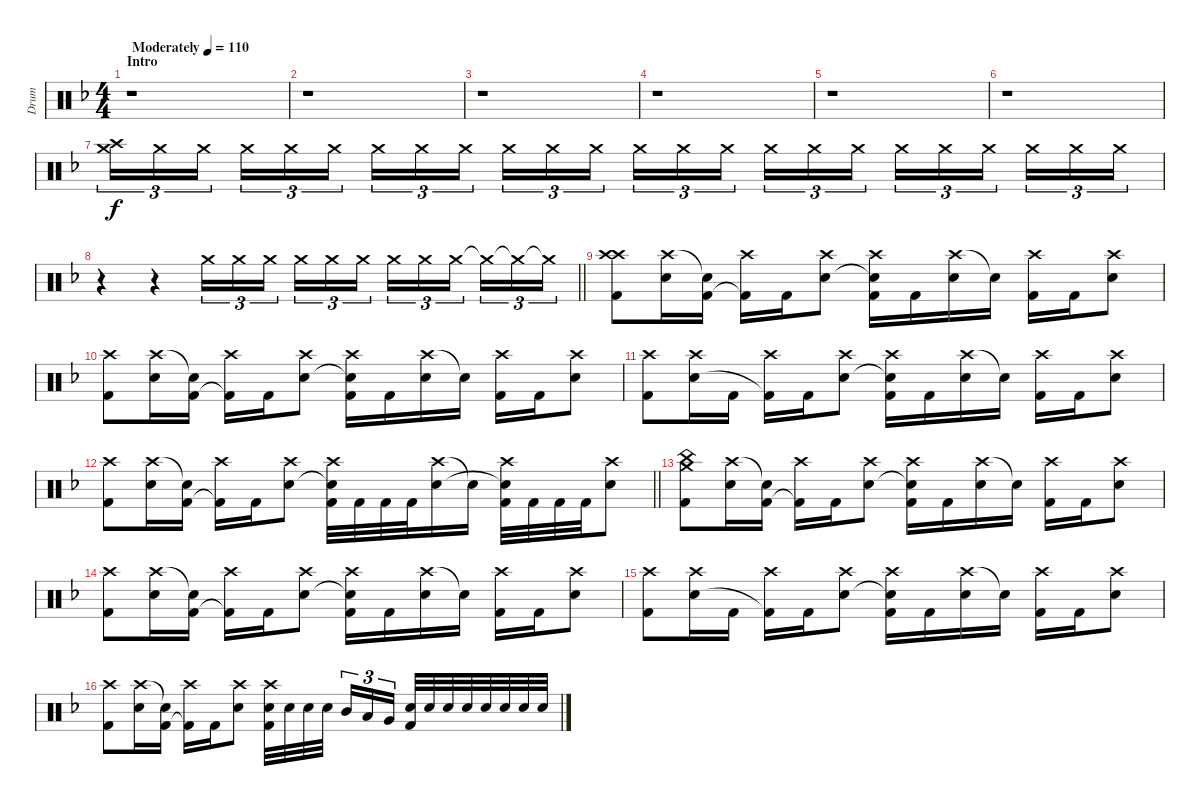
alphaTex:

\track ("Drum" "Drum") {instrument percussion}
\staff {score}
\articulation defaults
\ts (4 4)
\section ("" "Intro")
\tempo (110 "Moderately")
\clef neutral
\ks f
r.1{dy f volume 1} |
r.1 |
r.1 |
r.1 |
r.1 |
r.1 |
("Crash high (hit)" "Crash medium (hit)").16{tu (3 2) volume 16} "Crash medium (hit)".16{tu (3 2)} "Crash medium (hit)".16{tu (3 2) beam splitsecondary} "Crash medium (hit)".16{tu (3 2)} "Crash medium (hit)".16{tu (3 2)} "Crash medium (hit)".16{tu (3 2)} "Crash medium (hit)".16{tu (3 2)} "Crash medium (hit)".16{tu (3 2)} "Crash medium (hit)".16{tu (3 2) beam splitsecondary} "Crash medium (hit)".16{tu (3 2)} "Crash medium (hit)".16{tu (3 2)} "Crash medium (hit)".16{tu (3 2)} "Crash medium (hit)".16{tu (3 2)} "Crash medium (hit)".16{tu (3 2)} "Crash medium (hit)".16{tu (3 2) beam splitsecondary} "Crash medium (hit)".16{tu (3 2)} "Crash medium (hit)".16{tu (3 2)} "Crash medium (hit)".16{tu (3 2)} "Crash medium (hit)".16{tu (3 2)} "Crash medium (hit)".16{tu (3 2)} "Crash medium (hit)".16{tu (3 2) beam splitsecondary} "Crash medium (hit)".16{tu (3 2)} "Crash medium (hit)".16{tu (3 2)} "Crash medium (hit)".16{tu (3 2)} |
\barLineRight lightlight
r.4 r.4{volume 0} "Crash medium (hit)".16{tu (3 2) volume 13} "Crash medium (hit)".16{tu (3 2)} "Crash medium (hit)".16{tu (3 2) beam splitsecondary} "Crash medium (hit)".16{tu (3 2)} "Crash medium (hit)".16{tu (3 2)} "Crash medium (hit)".16{tu (3 2)} "Crash medium (hit)".16{tu (3 2)} "Crash medium (hit)".16{tu (3 2)} "Crash medium (hit)".16{tu (3 2) beam splitsecondary} "Crash medium (hit)"{t}.16{tu (3 2)} "Crash medium (hit)"{t}.16{tu (3 2)} "Crash medium (hit)"{t}.16{tu (3 2)} |
\section ("" "")
("Crash high (hit)" "Crash high (hit)" "Kick (hit) 2").8{volume 16} ("Crash high (hit)" "Electric Snare (hit)").16 ("Snare (hit)"{t} "Kick (hit) 2").16 ("Crash high (hit)" "Kick (hit) 2"{t}).16 "Kick (hit) 2".16 ("Crash high (hit)" "Electric Snare (hit)").8 ("Crash high (hit)" "Snare (hit) 2"{t} "Kick (hit) 2").16 "Kick (hit) 2".16 ("Crash high (hit)" "Electric Snare (hit)").16 "Snare (hit) 2"{t}.16 ("Crash high (hit)" "Kick (hit) 2").16 "Kick (hit) 2".16 ("Crash high (hit)" "Electric Snare (hit)").8 |
("Crash high (hit)" "Kick (hit) 2").8 ("Crash high (hit)" "Electric Snare (hit)").16 ("Snare (hit)"{t} "Kick (hit) 2").16 ("Crash high (hit)" "Kick (hit) 2"{t}).16 "Kick (hit) 2".16 ("Crash high (hit)" "Electric Snare (hit)").8 ("Crash high (hit)" "Snare (hit) 2"{t} "Kick (hit) 2").16 "Kick (hit) 2".16 ("Crash high (hit)" "Electric Snare (hit)").16 "Snare (hit) 2"{t}.16 ("Crash high (hit)" "Kick (hit) 2").16 "Kick (hit) 2".16 ("Crash high (hit)" "Electric Snare (hit)").8 |
("Crash high (hit)" "Kick (hit) 2").8 ("Crash high (hit)" "Electric Snare (hit)").16 "Kick (hit) 2".16 ("Crash high (hit)" "Kick (hit) 2"{t}).16 "Kick (hit) 2".16 ("Crash high (hit)" "Electric Snare (hit)").8 ("Crash high (hit)" "Snare (hit) 2"{t} "Kick (hit) 2").16 "Kick (hit) 2".16 ("Crash high (hit)" "Electric Snare (hit)").16 "Snare (hit) 2"{t}.16 ("Crash high (hit)" "Kick (hit) 2").16 "Kick (hit) 2".16 ("Crash high (hit)" "Electric Snare (hit)").8 |
\barLineRight lightlight
("Crash high (hit)" "Kick (hit) 2").8 ("Crash high (hit)" "Electric Snare (hit)").16 ("Snare (hit)"{t} "Kick (hit) 2").16 ("Crash high (hit)" "Kick (hit) 2"{t}).16 "Kick (hit) 2".16 ("Crash high (hit)" "Electric Snare (hit)").8 ("Crash high (hit)" "Snare (hit) 2"{t} "Kick (hit) 2").32 "Kick (hit) 2".32 "Kick (hit) 2".32 "Kick (hit) 2".32 ("Crash high (hit)" "Electric Snare (hit)").16 "Snare (hit) 2"{t}.16 ("Crash high (hit)" "Snare (hit) 2"{t} "Kick (hit) 2").32 "Kick (hit) 2".32 "Kick (hit) 2".32 "Kick (hit) 2".32 ("Crash high (hit)" "Electric Snare (hit)").8 |
("China (hit)" "Crash medium (hit)" "Kick (hit) 2").8{volume 16} ("Crash high (hit)" "Electric Snare (hit)").16 ("Snare (hit)"{t} "Kick (hit) 2").16 ("Crash high (hit)" "Kick (hit) 2"{t}).16 "Kick (hit) 2".16 ("Crash high (hit)" "Electric Snare (hit)").8 ("Crash high (hit)" "Snare (hit) 2"{t} "Kick (hit) 2").16 "Kick (hit) 2".16 ("Crash high (hit)" "Electric Snare (hit)").16 "Snare (hit) 2"{t}.16 ("Crash high (hit)" "Kick (hit) 2").16 "Kick (hit) 2".16 ("Crash high (hit)" "Electric Snare (hit)").8 |
("Crash high (hit)" "Kick (hit) 2").8 ("Crash high (hit)" "Electric Snare (hit)").16 ("Snare (hit)"{t} "Kick (hit) 2").16 ("Crash high (hit)" "Kick (hit) 2"{t}).16 "Kick (hit) 2".16 ("Crash high (hit)" "Electric Snare (hit)").8 ("Crash high (hit)" "Snare (hit) 2"{t} "Kick (hit) 2").16 "Kick (hit) 2".16 ("Crash high (hit)" "Electric Snare (hit)").16 "Snare (hit) 2"{t}.16 ("Crash high (hit)" "Kick (hit) 2").16 "Kick (hit) 2".16 ("Crash high (hit)" "Electric Snare (hit)").8 |
("Crash high (hit)" "Kick (hit) 2").8 ("Crash high (hit)" "Electric Snare (hit)").16 "Kick (hit) 2".16 ("Crash high (hit)" "Kick (hit) 2"{t}).16 "Kick (hit) 2".16 ("Crash high (hit)" "Electric Snare (hit)").8 ("Crash high (hit)" "Snare (hit) 2"{t} "Kick (hit) 2").16 "Kick (hit) 2".16 ("Crash high (hit)" "Electric Snare (hit)").16 "Snare (hit) 2"{t}.16 ("Crash high (hit)" "Kick (hit) 2").16 "Kick (hit) 2".16 ("Crash high (hit)" "Electric Snare (hit)").8 |
("Crash high (hit)" "Kick (hit) 2").8 ("Crash high (hit)" "Electric Snare (hit)").16 ("Snare (hit)"{t} "Kick (hit) 2").16 ("Crash high (hit)" "Kick (hit) 2"{t}).16 "Kick (hit) 2".16 ("Crash high (hit)" "Electric Snare (hit)").8 ("Crash high (hit)" "Electric Snare (hit)" "Kick (hit) 2").32 "Electric Snare (hit)".32 "Electric Snare (hit)".32 "Electric Snare (hit)".32{beam splitsecondary} "Mid Tom (hit)".16{tu (3 2)} "Low Tom (hit)".16{tu (3 2)} "Very Low Tom (hit)".16{tu (3 2)} ("Electric Snare (hit)" "Kick (hit) 2").32 "Electric Snare (hit)".32 "Electric Snare (hit)".32 "Electric Snare (hit)".32 "Electric Snare (hit)".32 "Electric Snare (hit)".32 "Electric Snare (hit)".32 "Electric Snare (hit)".32
